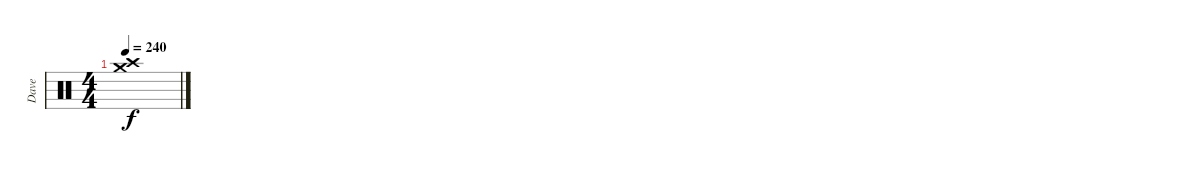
\track ("Dave" "Dave") {instrument percussion}
\staff {score}
\articulation defaults
\ts (4 4)
\tempo 240
\clef neutral
\ks c
("Crash high (hit)" "Crash medium (hit)").1{dy f}
